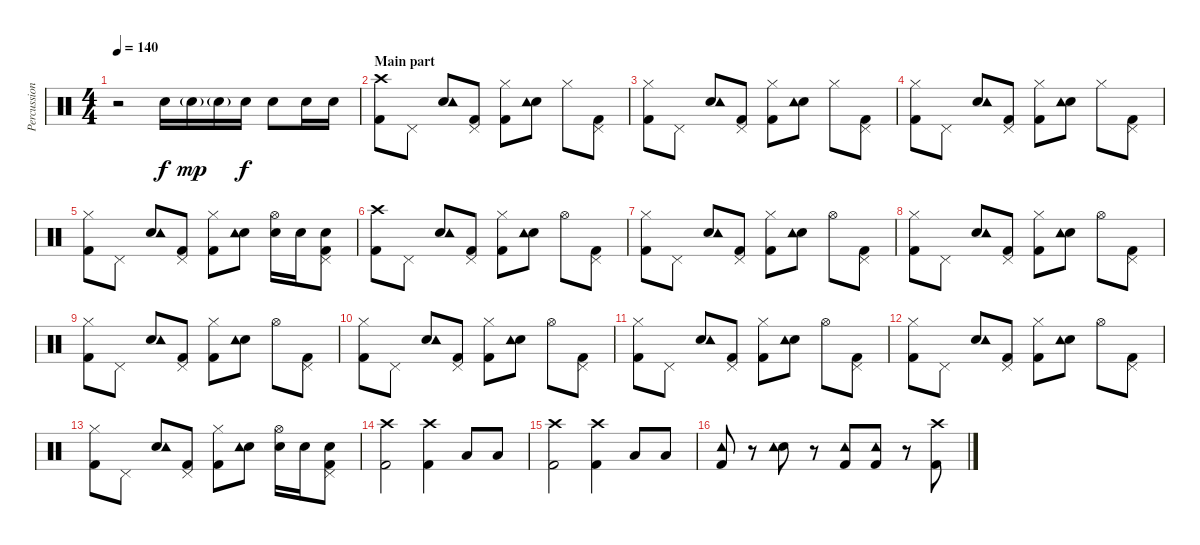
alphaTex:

\track ("Percussion" "Percussion") {instrument percussion}
\staff {score}
\articulation defaults
\ts (4 4)
\tempo 140
\clef neutral
\ks c
r.2{dy f} "Electric Snare (hit)".16 "Electric Snare (hit)"{g}.16{dy mp} "Electric Snare (hit)"{g}.16 "Electric Snare (hit)".16{dy f} "Electric Snare (hit)".8 "Electric Snare (hit)".16 "Electric Snare (hit)".16 |
\section ("" "Main part")
("Kick (hit) 2" "Crash high (hit)").8 "Pedal Hi-Hat (hit)".8 ("Electric Snare (hit)" "Tambourine (hit)").8 ("Kick (hit) 2" "Pedal Hi-Hat (hit)").8 ("Kick (hit) 2" "Hi-Hat (closed)").8 ("Electric Snare (hit)" "Tambourine (hit)").8 "Hi-Hat (closed)".8 ("Kick (hit) 2" "Pedal Hi-Hat (hit)").8 |
("Kick (hit) 2" "Hi-Hat (closed)").8 "Pedal Hi-Hat (hit)".8 ("Electric Snare (hit)" "Tambourine (hit)").8 ("Kick (hit) 2" "Pedal Hi-Hat (hit)").8 ("Kick (hit) 2" "Hi-Hat (closed)").8 ("Electric Snare (hit)" "Tambourine (hit)").8 "Hi-Hat (closed)".8 ("Kick (hit) 2" "Pedal Hi-Hat (hit)").8 |
("Kick (hit) 2" "Hi-Hat (closed)").8 "Pedal Hi-Hat (hit)".8 ("Electric Snare (hit)" "Tambourine (hit)").8 ("Kick (hit) 2" "Pedal Hi-Hat (hit)").8 ("Kick (hit) 2" "Hi-Hat (closed)").8 ("Electric Snare (hit)" "Tambourine (hit)").8 "Hi-Hat (closed)".8 ("Kick (hit) 2" "Pedal Hi-Hat (hit)").8 |
("Kick (hit) 2" "Hi-Hat (closed)").8 "Pedal Hi-Hat (hit)".8 ("Electric Snare (hit)" "Tambourine (hit)").8 ("Kick (hit) 2" "Pedal Hi-Hat (hit)").8 ("Kick (hit) 2" "Hi-Hat (closed)").8 ("Electric Snare (hit)" "Tambourine (hit)").8 ("Electric Snare (hit)" "Hi-Hat (open)").16 "Electric Snare (hit)".16 ("Kick (hit) 2" "Electric Snare (hit)" "Pedal Hi-Hat (hit)").8 |
("Kick (hit) 2" "Crash high (hit)").8 "Pedal Hi-Hat (hit)".8 ("Electric Snare (hit)" "Tambourine (hit)").8 ("Kick (hit) 2" "Pedal Hi-Hat (hit)").8 ("Kick (hit) 2" "Hi-Hat (closed)").8 ("Electric Snare (hit)" "Tambourine (hit)").8 "Hi-Hat (open)".8 ("Kick (hit) 2" "Pedal Hi-Hat (hit)").8 |
("Kick (hit) 2" "Hi-Hat (closed)").8 "Pedal Hi-Hat (hit)".8 ("Electric Snare (hit)" "Tambourine (hit)").8 ("Kick (hit) 2" "Pedal Hi-Hat (hit)").8 ("Kick (hit) 2" "Hi-Hat (closed)").8 ("Electric Snare (hit)" "Tambourine (hit)").8 "Hi-Hat (open)".8 ("Kick (hit) 2" "Pedal Hi-Hat (hit)").8 |
("Kick (hit) 2" "Hi-Hat (closed)").8 "Pedal Hi-Hat (hit)".8 ("Electric Snare (hit)" "Tambourine (hit)").8 ("Kick (hit) 2" "Pedal Hi-Hat (hit)").8 ("Kick (hit) 2" "Hi-Hat (closed)").8 ("Electric Snare (hit)" "Tambourine (hit)").8 "Hi-Hat (open)".8 ("Kick (hit) 2" "Pedal Hi-Hat (hit)").8 |
("Kick (hit) 2" "Hi-Hat (closed)").8 "Pedal Hi-Hat (hit)".8 ("Electric Snare (hit)" "Tambourine (hit)").8 ("Kick (hit) 2" "Pedal Hi-Hat (hit)").8 ("Kick (hit) 2" "Hi-Hat (closed)").8 ("Electric Snare (hit)" "Tambourine (hit)").8 "Hi-Hat (open)".8 ("Kick (hit) 2" "Pedal Hi-Hat (hit)").8 |
("Kick (hit) 2" "Hi-Hat (closed)").8 "Pedal Hi-Hat (hit)".8 ("Electric Snare (hit)" "Tambourine (hit)").8 ("Kick (hit) 2" "Pedal Hi-Hat (hit)").8 ("Kick (hit) 2" "Hi-Hat (closed)").8 ("Electric Snare (hit)" "Tambourine (hit)").8 "Hi-Hat (open)".8 ("Kick (hit) 2" "Pedal Hi-Hat (hit)").8 |
("Kick (hit) 2" "Hi-Hat (closed)").8 "Pedal Hi-Hat (hit)".8 ("Electric Snare (hit)" "Tambourine (hit)").8 ("Kick (hit) 2" "Pedal Hi-Hat (hit)").8 ("Kick (hit) 2" "Hi-Hat (closed)").8 ("Electric Snare (hit)" "Tambourine (hit)").8 "Hi-Hat (open)".8 ("Kick (hit) 2" "Pedal Hi-Hat (hit)").8 |
("Kick (hit) 2" "Hi-Hat (closed)").8 "Pedal Hi-Hat (hit)".8 ("Electric Snare (hit)" "Tambourine (hit)").8 ("Kick (hit) 2" "Pedal Hi-Hat (hit)").8 ("Kick (hit) 2" "Hi-Hat (closed)").8 ("Electric Snare (hit)" "Tambourine (hit)").8 "Hi-Hat (open)".8 ("Kick (hit) 2" "Pedal Hi-Hat (hit)").8 |
("Kick (hit) 2" "Hi-Hat (closed)").8 "Pedal Hi-Hat (hit)".8 ("Electric Snare (hit)" "Tambourine (hit)").8 ("Kick (hit) 2" "Pedal Hi-Hat (hit)").8 ("Kick (hit) 2" "Hi-Hat (closed)").8 ("Electric Snare (hit)" "Tambourine (hit)").8 ("Electric Snare (hit)" "Hi-Hat (open)").16 "Electric Snare (hit)".16 ("Kick (hit) 2" "Electric Snare (hit)" "Pedal Hi-Hat (hit)").8 |
("Kick (hit) 2" "Crash high (hit)").2 ("Kick (hit) 2" "Crash high (hit)").4 "Low Tom (hit)".8 "Low Tom (hit)".8 |
("Kick (hit) 2" "Crash high (hit)").2 ("Kick (hit) 2" "Crash high (hit)").4 "Low Floor Tom (hit)".8 "Low Tom (hit)".8 |
("Kick (hit) 2" "Tambourine (hit)").8 r.8 ("Electric Snare (hit)" "Tambourine (hit)").8 r.8 ("Kick (hit) 2" "Tambourine (hit)").8 ("Kick (hit) 2" "Tambourine (hit)").8 r.8 ("Kick (hit) 2" "Crash high (hit)").8
